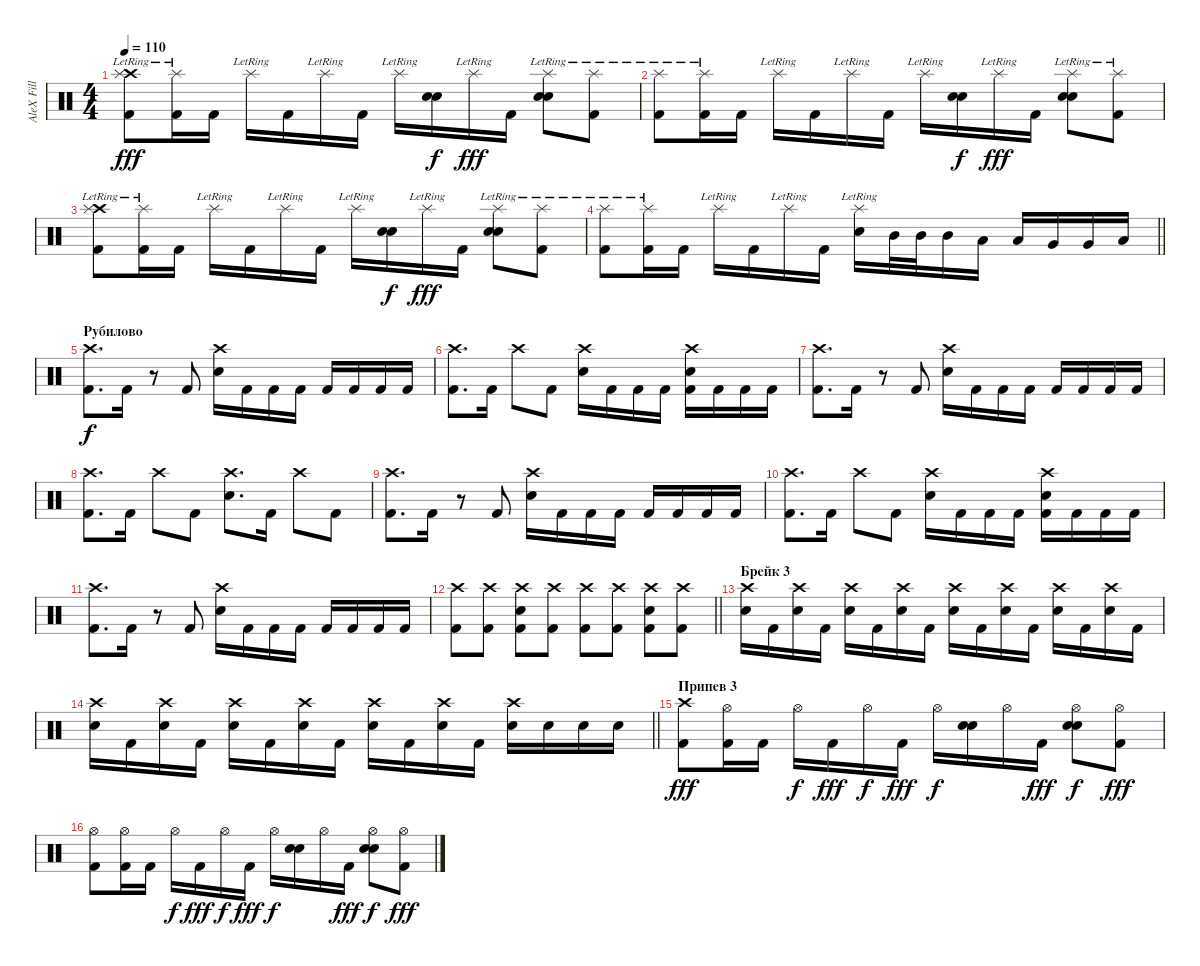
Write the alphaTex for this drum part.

\track ("AleX Fill" "AleX Fill") {instrument percussion}
\staff {score}
\articulation defaults
\ts (4 4)
\tempo 110
\clef neutral
\ks c
("Crash high (hit)" "Splash (hit)"{lr} "Kick (hit) 2").8{dy fff} ("Splash (hit)"{lr} "Kick (hit) 2").16 "Kick (hit) 2".16 "Splash (hit)"{lr}.16 "Kick (hit) 2".16 "Splash (hit)"{lr}.16 "Kick (hit) 2".16 "Splash (hit)"{lr}.16 ("Electric Snare (hit)" "Electric Snare (hit)").16{dy f} "Splash (hit)"{lr}.16{dy fff} "Kick (hit) 2".16 ("Splash (hit)"{lr} "Electric Snare (hit)" "Electric Snare (hit)").8 ("Splash (hit)"{lr} "Kick (hit) 2").8 |
("Splash (hit)"{lr} "Kick (hit) 2").8 ("Splash (hit)"{lr} "Kick (hit) 2").16 "Kick (hit) 2".16 "Splash (hit)"{lr}.16 "Kick (hit) 2".16 "Splash (hit)"{lr}.16 "Kick (hit) 2".16 "Splash (hit)"{lr}.16 ("Electric Snare (hit)" "Electric Snare (hit)").16{dy f} "Splash (hit)"{lr}.16{dy fff} "Kick (hit) 2".16 ("Splash (hit)"{lr} "Electric Snare (hit)" "Electric Snare (hit)").8 ("Splash (hit)"{lr} "Kick (hit) 2").8 |
("Crash high (hit)" "Splash (hit)"{lr} "Kick (hit) 2").8 ("Splash (hit)"{lr} "Kick (hit) 2").16 "Kick (hit) 2".16 "Splash (hit)"{lr}.16 "Kick (hit) 2".16 "Splash (hit)"{lr}.16 "Kick (hit) 2".16 "Splash (hit)"{lr}.16 ("Electric Snare (hit)" "Electric Snare (hit)").16{dy f} "Splash (hit)"{lr}.16{dy fff} "Kick (hit) 2".16 ("Splash (hit)"{lr} "Electric Snare (hit)" "Electric Snare (hit)").8 ("Splash (hit)"{lr} "Kick (hit) 2").8 |
\barLineRight lightlight
("Splash (hit)"{lr} "Kick (hit) 2").8 ("Splash (hit)"{lr} "Kick (hit) 2").16 "Kick (hit) 2".16 "Splash (hit)"{lr}.16 "Kick (hit) 2".16 "Splash (hit)"{lr}.16 "Kick (hit) 2".16 ("Splash (hit)"{lr} "Electric Snare (hit)").16 "Mid Tom (hit)".32 "Mid Tom (hit)".32 "Mid Tom (hit)".16 "Low Tom (hit)".16 "Low Tom (hit)".16 "Very Low Tom (hit)".16 "Very Low Tom (hit)".16 "Low Floor Tom (hit)".16 |
\section ("" "Рубилово")
("Crash high (hit)" "Kick (hit) 2").8{d dy f} "Kick (hit) 2".16 r.8 "Kick (hit) 2".8 ("Crash high (hit)" "Electric Snare (hit)").16 "Kick (hit) 2".16 "Kick (hit) 2".16 "Kick (hit) 2".16 "Kick (hit) 2".16 "Kick (hit) 2".16 "Kick (hit) 2".16 "Kick (hit) 2".16 |
("Crash high (hit)" "Kick (hit) 2").8{d} "Kick (hit) 2".16 "Crash high (hit)".8 "Kick (hit) 2".8 ("Crash high (hit)" "Electric Snare (hit)").16 "Kick (hit) 2".16 "Kick (hit) 2".16 "Kick (hit) 2".16 ("Crash high (hit)" "Electric Snare (hit)" "Kick (hit) 2").16 "Kick (hit) 2".16 "Kick (hit) 2".16 "Kick (hit) 2".16 |
("Crash high (hit)" "Kick (hit) 2").8{d} "Kick (hit) 2".16 r.8 "Kick (hit) 2".8 ("Crash high (hit)" "Electric Snare (hit)").16 "Kick (hit) 2".16 "Kick (hit) 2".16 "Kick (hit) 2".16 "Kick (hit) 2".16 "Kick (hit) 2".16 "Kick (hit) 2".16 "Kick (hit) 2".16 |
("Crash high (hit)" "Kick (hit) 2").8{d} "Kick (hit) 2".16 "Crash high (hit)".8 "Kick (hit) 2".8 ("Crash high (hit)" "Electric Snare (hit)").8{d} "Kick (hit) 2".16 "Crash high (hit)".8 "Kick (hit) 2".8 |
("Crash high (hit)" "Kick (hit) 2").8{d} "Kick (hit) 2".16 r.8 "Kick (hit) 2".8 ("Crash high (hit)" "Electric Snare (hit)").16 "Kick (hit) 2".16 "Kick (hit) 2".16 "Kick (hit) 2".16 "Kick (hit) 2".16 "Kick (hit) 2".16 "Kick (hit) 2".16 "Kick (hit) 2".16 |
("Crash high (hit)" "Kick (hit) 2").8{d} "Kick (hit) 2".16 "Crash high (hit)".8 "Kick (hit) 2".8 ("Crash high (hit)" "Electric Snare (hit)").16 "Kick (hit) 2".16 "Kick (hit) 2".16 "Kick (hit) 2".16 ("Crash high (hit)" "Electric Snare (hit)" "Kick (hit) 2").16 "Kick (hit) 2".16 "Kick (hit) 2".16 "Kick (hit) 2".16 |
("Crash high (hit)" "Kick (hit) 2").8{d} "Kick (hit) 2".16 r.8 "Kick (hit) 2".8 ("Crash high (hit)" "Electric Snare (hit)").16 "Kick (hit) 2".16 "Kick (hit) 2".16 "Kick (hit) 2".16 "Kick (hit) 2".16 "Kick (hit) 2".16 "Kick (hit) 2".16 "Kick (hit) 2".16 |
\barLineRight lightlight
("Crash high (hit)" "Kick (hit) 2").8 ("Crash high (hit)" "Kick (hit) 2").8 ("Crash high (hit)" "Electric Snare (hit)" "Kick (hit) 2").8 ("Crash high (hit)" "Kick (hit) 2").8 ("Crash high (hit)" "Kick (hit) 2").8 ("Crash high (hit)" "Kick (hit) 2").8 ("Crash high (hit)" "Electric Snare (hit)" "Kick (hit) 2").8 ("Crash high (hit)" "Kick (hit) 2").8 |
\section ("" "Брейк 3")
("Crash high (hit)" "Electric Snare (hit)").16 "Kick (hit) 2".16 ("Crash high (hit)" "Electric Snare (hit)").16 "Kick (hit) 2".16 ("Crash high (hit)" "Electric Snare (hit)").16 "Kick (hit) 2".16 ("Crash high (hit)" "Electric Snare (hit)").16 "Kick (hit) 2".16 ("Crash high (hit)" "Electric Snare (hit)").16 "Kick (hit) 2".16 ("Crash high (hit)" "Electric Snare (hit)").16 "Kick (hit) 2".16 ("Crash high (hit)" "Electric Snare (hit)").16 "Kick (hit) 2".16 ("Crash high (hit)" "Electric Snare (hit)").16 "Kick (hit) 2".16 |
\barLineRight lightlight
("Crash high (hit)" "Electric Snare (hit)").16 "Kick (hit) 2".16 ("Crash high (hit)" "Electric Snare (hit)").16 "Kick (hit) 2".16 ("Crash high (hit)" "Electric Snare (hit)").16 "Kick (hit) 2".16 ("Crash high (hit)" "Electric Snare (hit)").16 "Kick (hit) 2".16 ("Crash high (hit)" "Electric Snare (hit)").16 "Kick (hit) 2".16 ("Crash high (hit)" "Electric Snare (hit)").16 "Kick (hit) 2".16 ("Crash high (hit)" "Electric Snare (hit)").16 "Electric Snare (hit)".16 "Electric Snare (hit)".16 "Electric Snare (hit)".16 |
\section ("" "Припев 3")
("Crash high (hit)" "Kick (hit) 2").8{dy fff} ("Hi-Hat (open)" "Kick (hit) 2").16 "Kick (hit) 2".16 "Hi-Hat (open)".16{dy f} "Kick (hit) 2".16{dy fff} "Hi-Hat (open)".16{dy f} "Kick (hit) 2".16{dy fff} "Hi-Hat (open)".16{dy f} ("Electric Snare (hit)" "Electric Snare (hit)").16 "Hi-Hat (open)".16 "Kick (hit) 2".16{dy fff} ("Hi-Hat (open)" "Electric Snare (hit)" "Electric Snare (hit)").8{dy f} ("Hi-Hat (open)" "Kick (hit) 2").8{dy fff} |
("Hi-Hat (open)" "Kick (hit) 2").8 ("Hi-Hat (open)" "Kick (hit) 2").16 "Kick (hit) 2".16 "Hi-Hat (open)".16{dy f} "Kick (hit) 2".16{dy fff} "Hi-Hat (open)".16{dy f} "Kick (hit) 2".16{dy fff} "Hi-Hat (open)".16{dy f} ("Electric Snare (hit)" "Electric Snare (hit)").16 "Hi-Hat (open)".16 "Kick (hit) 2".16{dy fff} ("Hi-Hat (open)" "Electric Snare (hit)" "Electric Snare (hit)").8{dy f} ("Hi-Hat (open)" "Kick (hit) 2").8{dy fff}
